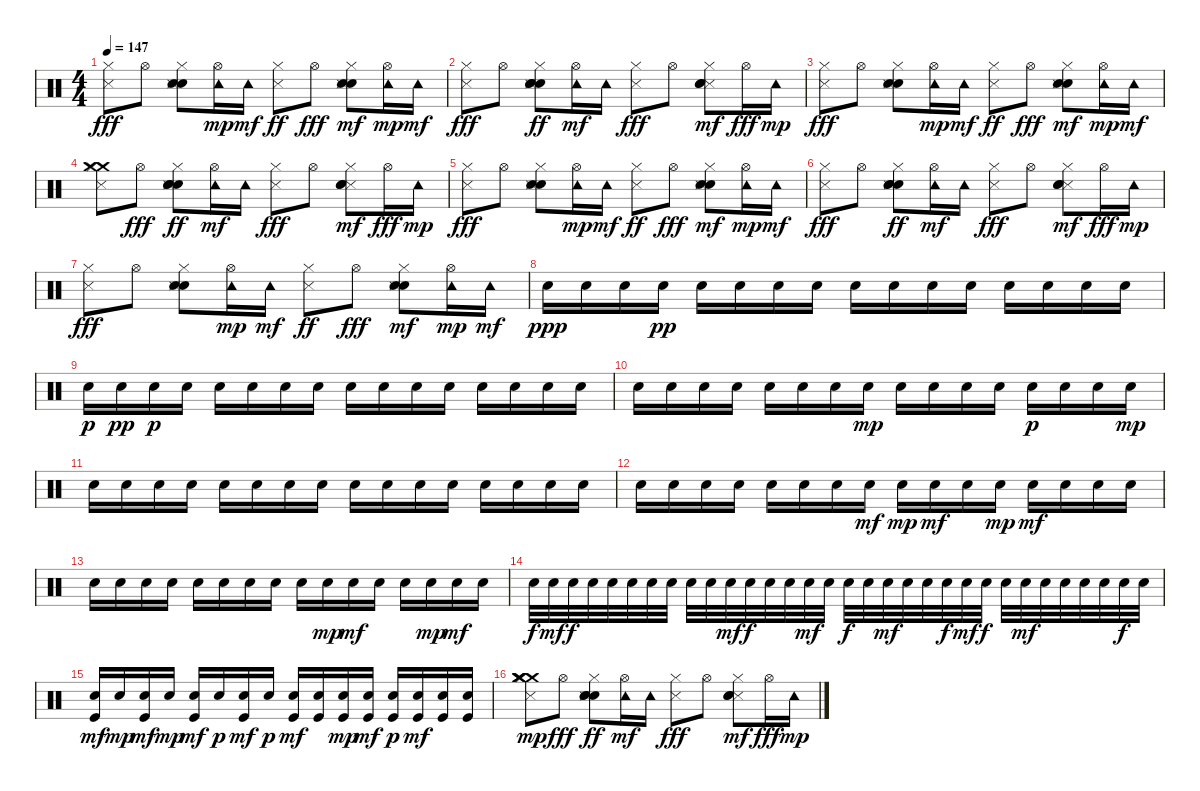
\track "" {instrument percussion}
\staff {score}
\articulation defaults
\ts (4 4)
\tempo 147
\clef neutral
\ks c
("Metronome (hit)" "Hi-Hat (closed)").8{dy fff} "Hi-Hat (open)".8 ("Hand Clap (hit)" "Metronome (hit)" "Hi-Hat (closed)" "Snare (hit) 2").8 ("Hi-Hat (open)" "Tambourine (hit)").16{dy mp} "Tambourine (hit)".16{dy mf} ("Metronome (hit)" "Hi-Hat (closed)").8{dy ff} "Hi-Hat (open)".8{dy fff} ("Hand Clap (hit)" "Metronome (hit)" "Hi-Hat (closed)" "Snare (hit) 2").8{dy mf} ("Hi-Hat (open)" "Tambourine (hit)").16{dy mp} "Tambourine (hit)".16{dy mf} |
("Hi-Hat (closed)" "Metronome (hit)").8{dy fff} "Hi-Hat (open)".8 ("Hand Clap (hit)" "Metronome (hit)" "Hi-Hat (closed)" "Snare (hit) 2" "Snare (hit) 2").8{dy ff} ("Hi-Hat (open)" "Tambourine (hit)").16{dy mf} "Tambourine (hit)".16 ("Hi-Hat (closed)" "Metronome (hit)").8{dy fff} "Hi-Hat (open)".8 ("Metronome (hit)" "Hand Clap (hit)" "Hi-Hat (closed)" "Snare (hit) 2").8{dy mf} "Hi-Hat (open)".16{dy fff} "Tambourine (hit)".16{dy mp} |
("Metronome (hit)" "Hi-Hat (closed)").8{dy fff} "Hi-Hat (open)".8 ("Hand Clap (hit)" "Metronome (hit)" "Hi-Hat (closed)" "Snare (hit) 2").8 ("Hi-Hat (open)" "Tambourine (hit)").16{dy mp} "Tambourine (hit)".16{dy mf} ("Metronome (hit)" "Hi-Hat (closed)").8{dy ff} "Hi-Hat (open)".8{dy fff} ("Hand Clap (hit)" "Metronome (hit)" "Hi-Hat (closed)" "Snare (hit) 2").8{dy mf} ("Hi-Hat (open)" "Tambourine (hit)").16{dy mp} "Tambourine (hit)".16{dy mf} |
("Crash medium (hit)" "Hi-Hat (closed)" "Metronome (hit)" "Crash medium (hit)").8 "Hi-Hat (open)".8{dy fff} ("Hand Clap (hit)" "Metronome (hit)" "Hi-Hat (closed)" "Snare (hit) 2" "Snare (hit) 2").8{dy ff} ("Hi-Hat (open)" "Tambourine (hit)").16{dy mf} "Tambourine (hit)".16 ("Hi-Hat (closed)" "Metronome (hit)").8{dy fff} "Hi-Hat (open)".8 ("Metronome (hit)" "Hand Clap (hit)" "Hi-Hat (closed)" "Snare (hit) 2").8{dy mf} "Hi-Hat (open)".16{dy fff} "Tambourine (hit)".16{dy mp} |
("Metronome (hit)" "Hi-Hat (closed)").8{dy fff} "Hi-Hat (open)".8 ("Hand Clap (hit)" "Metronome (hit)" "Hi-Hat (closed)" "Snare (hit) 2").8 ("Hi-Hat (open)" "Tambourine (hit)").16{dy mp} "Tambourine (hit)".16{dy mf} ("Metronome (hit)" "Hi-Hat (closed)").8{dy ff} "Hi-Hat (open)".8{dy fff} ("Hand Clap (hit)" "Metronome (hit)" "Hi-Hat (closed)" "Snare (hit) 2").8{dy mf} ("Hi-Hat (open)" "Tambourine (hit)").16{dy mp} "Tambourine (hit)".16{dy mf} |
("Hi-Hat (closed)" "Metronome (hit)").8{dy fff} "Hi-Hat (open)".8 ("Hand Clap (hit)" "Metronome (hit)" "Hi-Hat (closed)" "Snare (hit) 2" "Snare (hit) 2").8{dy ff} ("Hi-Hat (open)" "Tambourine (hit)").16{dy mf} "Tambourine (hit)".16 ("Hi-Hat (closed)" "Metronome (hit)").8{dy fff} "Hi-Hat (open)".8 ("Metronome (hit)" "Hand Clap (hit)" "Hi-Hat (closed)" "Snare (hit) 2").8{dy mf} "Hi-Hat (open)".16{dy fff} "Tambourine (hit)".16{dy mp} |
("Metronome (hit)" "Hi-Hat (closed)").8{dy fff} "Hi-Hat (open)".8 ("Hand Clap (hit)" "Metronome (hit)" "Hi-Hat (closed)" "Snare (hit) 2").8 ("Hi-Hat (open)" "Tambourine (hit)").16{dy mp} "Tambourine (hit)".16{dy mf} ("Metronome (hit)" "Hi-Hat (closed)").8{dy ff} "Hi-Hat (open)".8{dy fff} ("Hand Clap (hit)" "Metronome (hit)" "Hi-Hat (closed)" "Snare (hit) 2").8{dy mf} ("Hi-Hat (open)" "Tambourine (hit)").16{dy mp} "Tambourine (hit)".16{dy mf} |
"Snare (hit) 2".16{dy ppp} "Snare (hit) 2".16 "Snare (hit) 2".16 "Snare (hit) 2".16{dy pp} "Snare (hit) 2".16 "Snare (hit) 2".16 "Snare (hit) 2".16 "Snare (hit) 2".16 "Snare (hit) 2".16 "Snare (hit) 2".16 "Snare (hit) 2".16 "Snare (hit) 2".16 "Snare (hit) 2".16 "Snare (hit) 2".16 "Snare (hit) 2".16 "Snare (hit) 2".16 |
"Snare (hit) 2".16{dy p} "Snare (hit) 2".16{dy pp} "Snare (hit) 2".16{dy p} "Snare (hit) 2".16 "Snare (hit) 2".16 "Snare (hit) 2".16 "Snare (hit) 2".16 "Snare (hit) 2".16 "Snare (hit) 2".16 "Snare (hit) 2".16 "Snare (hit) 2".16 "Snare (hit) 2".16 "Snare (hit) 2".16 "Snare (hit) 2".16 "Snare (hit) 2".16 "Snare (hit) 2".16 |
"Snare (hit) 2".16 "Snare (hit) 2".16 "Snare (hit) 2".16 "Snare (hit) 2".16 "Snare (hit) 2".16 "Snare (hit) 2".16 "Snare (hit) 2".16 "Snare (hit) 2".16{dy mp} "Snare (hit) 2".16 "Snare (hit) 2".16 "Snare (hit) 2".16 "Snare (hit) 2".16 "Snare (hit) 2".16{dy p} "Snare (hit) 2".16 "Snare (hit) 2".16 "Snare (hit) 2".16{dy mp} |
"Snare (hit) 2".16 "Snare (hit) 2".16 "Snare (hit) 2".16 "Snare (hit) 2".16 "Snare (hit) 2".16 "Snare (hit) 2".16 "Snare (hit) 2".16 "Snare (hit) 2".16 "Snare (hit) 2".16 "Snare (hit) 2".16 "Snare (hit) 2".16 "Snare (hit) 2".16 "Snare (hit) 2".16 "Snare (hit) 2".16 "Snare (hit) 2".16 "Snare (hit) 2".16 |
"Snare (hit) 2".16 "Snare (hit) 2".16 "Snare (hit) 2".16 "Snare (hit) 2".16 "Snare (hit) 2".16 "Snare (hit) 2".16 "Snare (hit) 2".16 "Snare (hit) 2".16{dy mf} "Snare (hit) 2".16{dy mp} "Snare (hit) 2".16{dy mf} "Snare (hit) 2".16 "Snare (hit) 2".16{dy mp} "Snare (hit) 2".16{dy mf} "Snare (hit) 2".16 "Snare (hit) 2".16 "Snare (hit) 2".16 |
"Snare (hit) 2".16 "Snare (hit) 2".16 "Snare (hit) 2".16 "Snare (hit) 2".16 "Snare (hit) 2".16 "Snare (hit) 2".16 "Snare (hit) 2".16 "Snare (hit) 2".16 "Snare (hit) 2".16 "Snare (hit) 2".16{dy mp} "Snare (hit) 2".16{dy mf} "Snare (hit) 2".16 "Snare (hit) 2".16 "Snare (hit) 2".16{dy mp} "Snare (hit) 2".16{dy mf} "Snare (hit) 2".16 |
"Snare (hit) 2".32{dy f} "Snare (hit) 2".32{dy mf} "Snare (hit) 2".32{dy f} "Snare (hit) 2".32 "Snare (hit) 2".32 "Snare (hit) 2".32 "Snare (hit) 2".32 "Snare (hit) 2".32 "Snare (hit) 2".32 "Snare (hit) 2".32 "Snare (hit) 2".32{dy mf} "Snare (hit) 2".32{dy f} "Snare (hit) 2".32 "Snare (hit) 2".32 "Snare (hit) 2".32{dy mf} "Snare (hit) 2".32 "Snare (hit) 2".32{dy f} "Snare (hit) 2".32 "Snare (hit) 2".32{dy mf} "Snare (hit) 2".32 "Snare (hit) 2".32 "Snare (hit) 2".32{dy f} "Snare (hit) 2".32{dy mf} "Snare (hit) 2".32{dy f} "Snare (hit) 2".32 "Snare (hit) 2".32{dy mf} "Snare (hit) 2".32 "Snare (hit) 2".32 "Snare (hit) 2".32 "Snare (hit) 2".32 "Snare (hit) 2".32{dy f} "Snare (hit) 2".32 |
("Kick (hit)" "Snare (hit) 2").16{dy mf} "Snare (hit) 2".16{dy mp} ("Kick (hit)" "Snare (hit) 2").16{dy mf} "Snare (hit) 2".16{dy mp} ("Kick (hit)" "Snare (hit) 2").16{dy mf} "Snare (hit) 2".16{dy p} ("Snare (hit) 2" "Kick (hit)").16{dy mf} "Snare (hit) 2".16{dy p} ("Snare (hit) 2" "Kick (hit)").16{dy mf} ("Snare (hit) 2" "Kick (hit)").16 ("Snare (hit) 2" "Kick (hit)").16{dy mp} ("Kick (hit)" "Snare (hit) 2").16{dy mf} ("Snare (hit) 2" "Kick (hit)").16{dy p} ("Kick (hit)" "Snare (hit) 2").16{dy mf} ("Kick (hit)" "Snare (hit) 2").16 ("Kick (hit)" "Snare (hit) 2").16 |
("Crash medium (hit)" "Crash medium (hit)" "Crash medium (hit)" "Hi-Hat (closed)" "Metronome (hit)" "Crash medium (hit)").8{dy mp} "Hi-Hat (open)".8{dy fff} ("Hand Clap (hit)" "Metronome (hit)" "Hi-Hat (closed)" "Snare (hit) 2" "Snare (hit) 2").8{dy ff} ("Hi-Hat (open)" "Tambourine (hit)").16{dy mf} "Tambourine (hit)".16 ("Hi-Hat (closed)" "Metronome (hit)").8{dy fff} "Hi-Hat (open)".8 ("Metronome (hit)" "Hand Clap (hit)" "Hi-Hat (closed)" "Snare (hit) 2").8{dy mf} "Hi-Hat (open)".16{dy fff} "Tambourine (hit)".16{dy mp}
